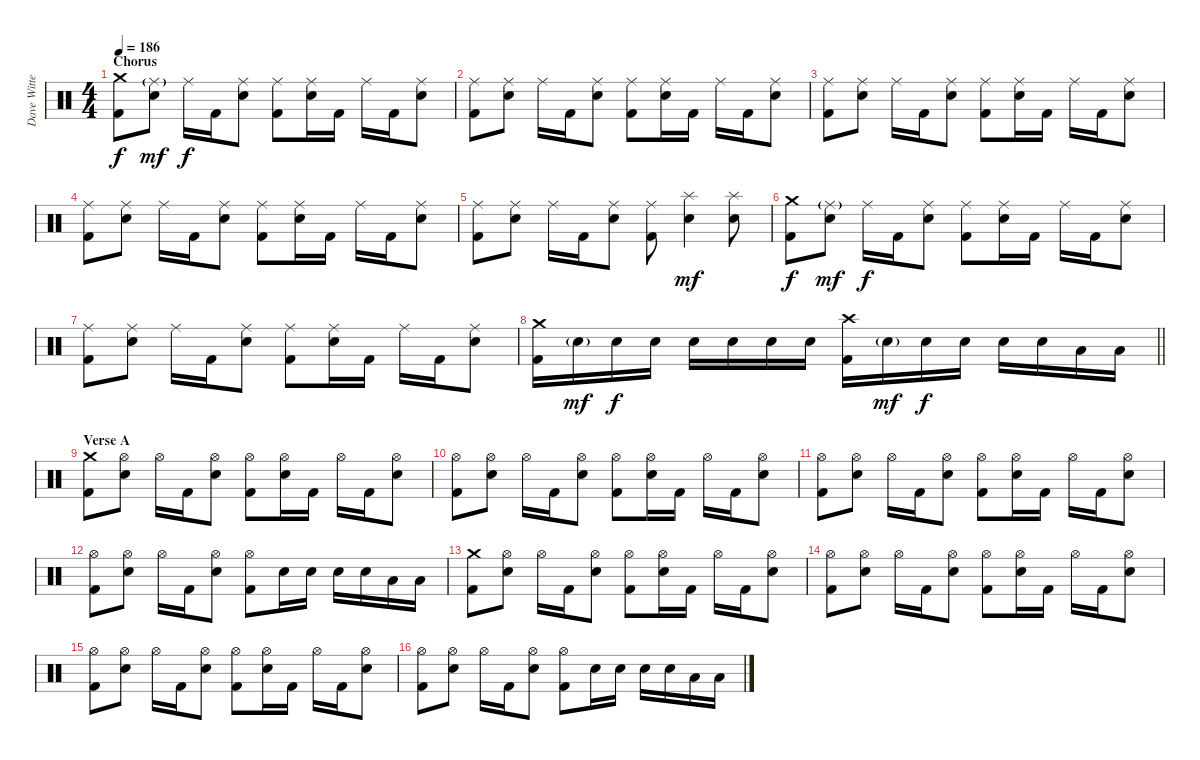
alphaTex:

\track ("Dave Witte" "Dave Witte") {instrument percussion}
\staff {score}
\articulation defaults
\ts (4 4)
\section ("" "Chorus")
\tempo 186
\clef neutral
\ks c
("Crash medium (hit)" "Kick (hit) 2").8{dy f} ("Ride (middle)"{g} "Electric Snare (hit)").8{dy mf} "Ride (middle)".16{dy f} "Kick (hit) 2".16 ("Ride (middle)" "Electric Snare (hit)").8 ("Ride (middle)" "Kick (hit) 2").8 ("Ride (middle)" "Electric Snare (hit)").16 "Kick (hit) 2".16 "Ride (middle)".16 "Kick (hit) 2".16 ("Ride (middle)" "Electric Snare (hit)").8 |
("Ride (middle)" "Kick (hit) 2").8 ("Ride (middle)" "Electric Snare (hit)").8 "Ride (middle)".16 "Kick (hit) 2".16 ("Ride (middle)" "Electric Snare (hit)").8 ("Ride (middle)" "Kick (hit) 2").8 ("Ride (middle)" "Electric Snare (hit)").16 "Kick (hit) 2".16 "Ride (middle)".16 "Kick (hit) 2".16 ("Ride (middle)" "Electric Snare (hit)").8 |
("Ride (middle)" "Kick (hit) 2").8 ("Ride (middle)" "Electric Snare (hit)").8 "Ride (middle)".16 "Kick (hit) 2".16 ("Ride (middle)" "Electric Snare (hit)").8 ("Ride (middle)" "Kick (hit) 2").8 ("Ride (middle)" "Electric Snare (hit)").16 "Kick (hit) 2".16 "Ride (middle)".16 "Kick (hit) 2".16 ("Ride (middle)" "Electric Snare (hit)").8 |
("Ride (middle)" "Kick (hit) 2").8 ("Ride (middle)" "Electric Snare (hit)").8 "Ride (middle)".16 "Kick (hit) 2".16 ("Ride (middle)" "Electric Snare (hit)").8 ("Ride (middle)" "Kick (hit) 2").8 ("Ride (middle)" "Electric Snare (hit)").16 "Kick (hit) 2".16 "Ride (middle)".16 "Kick (hit) 2".16 ("Ride (middle)" "Electric Snare (hit)").8 |
("Ride (middle)" "Kick (hit) 2").8 ("Ride (middle)" "Electric Snare (hit)").8 "Ride (middle)".16 "Kick (hit) 2".16 ("Ride (middle)" "Electric Snare (hit)").8 ("Ride (middle)" "Kick (hit) 2").8 ("Splash (hit)" "Electric Snare (hit)").4{dy mf} ("Splash (hit)" "Electric Snare (hit)").8 |
("Crash medium (hit)" "Kick (hit) 2").8{dy f} ("Ride (middle)"{g} "Electric Snare (hit)").8{dy mf} "Ride (middle)".16{dy f} "Kick (hit) 2".16 ("Ride (middle)" "Electric Snare (hit)").8 ("Ride (middle)" "Kick (hit) 2").8 ("Ride (middle)" "Electric Snare (hit)").16 "Kick (hit) 2".16 "Ride (middle)".16 "Kick (hit) 2".16 ("Ride (middle)" "Electric Snare (hit)").8 |
("Ride (middle)" "Kick (hit) 2").8 ("Ride (middle)" "Electric Snare (hit)").8 "Ride (middle)".16 "Kick (hit) 2".16 ("Ride (middle)" "Electric Snare (hit)").8 ("Ride (middle)" "Kick (hit) 2").8 ("Ride (middle)" "Electric Snare (hit)").16 "Kick (hit) 2".16 "Ride (middle)".16 "Kick (hit) 2".16 ("Ride (middle)" "Electric Snare (hit)").8 |
\barLineRight lightlight
("Crash medium (hit)" "Kick (hit) 2").16 "Electric Snare (hit)"{g}.16{dy mf} "Electric Snare (hit)".16{dy f} "Electric Snare (hit)".16 "Electric Snare (hit)".16 "Electric Snare (hit)".16 "Electric Snare (hit)".16 "Electric Snare (hit)".16 ("Crash high (hit)" "Kick (hit) 2").16 "Electric Snare (hit)"{g}.16{dy mf} "Electric Snare (hit)".16{dy f} "Electric Snare (hit)".16 "Electric Snare (hit)".16 "Electric Snare (hit)".16 "Low Tom (hit)".16 "Low Tom (hit)".16 |
\section ("" "Verse A")
("Crash medium (hit)" "Kick (hit) 2").8 ("Hi-Hat (open)" "Electric Snare (hit)").8 "Hi-Hat (open)".16 "Kick (hit) 2".16 ("Hi-Hat (open)" "Electric Snare (hit)").8 ("Hi-Hat (open)" "Kick (hit) 2").8 ("Hi-Hat (open)" "Electric Snare (hit)").16 "Kick (hit) 2".16 "Hi-Hat (open)".16 "Kick (hit) 2".16 ("Hi-Hat (open)" "Electric Snare (hit)").8 |
("Hi-Hat (open)" "Kick (hit) 2").8 ("Hi-Hat (open)" "Electric Snare (hit)").8 "Hi-Hat (open)".16 "Kick (hit) 2".16 ("Hi-Hat (open)" "Electric Snare (hit)").8 ("Hi-Hat (open)" "Kick (hit) 2").8 ("Hi-Hat (open)" "Electric Snare (hit)").16 "Kick (hit) 2".16 "Hi-Hat (open)".16 "Kick (hit) 2".16 ("Hi-Hat (open)" "Electric Snare (hit)").8 |
("Hi-Hat (open)" "Kick (hit) 2").8 ("Hi-Hat (open)" "Electric Snare (hit)").8 "Hi-Hat (open)".16 "Kick (hit) 2".16 ("Hi-Hat (open)" "Electric Snare (hit)").8 ("Hi-Hat (open)" "Kick (hit) 2").8 ("Hi-Hat (open)" "Electric Snare (hit)").16 "Kick (hit) 2".16 "Hi-Hat (open)".16 "Kick (hit) 2".16 ("Hi-Hat (open)" "Electric Snare (hit)").8 |
("Hi-Hat (open)" "Kick (hit) 2").8 ("Hi-Hat (open)" "Electric Snare (hit)").8 "Hi-Hat (open)".16 "Kick (hit) 2".16 ("Hi-Hat (open)" "Electric Snare (hit)").8 ("Hi-Hat (open)" "Kick (hit) 2").8 "Electric Snare (hit)".16 "Electric Snare (hit)".16 "Electric Snare (hit)".16 "Electric Snare (hit)".16 "Low Tom (hit)".16 "Low Tom (hit)".16 |
("Crash medium (hit)" "Kick (hit) 2").8 ("Hi-Hat (open)" "Electric Snare (hit)").8 "Hi-Hat (open)".16 "Kick (hit) 2".16 ("Hi-Hat (open)" "Electric Snare (hit)").8 ("Hi-Hat (open)" "Kick (hit) 2").8 ("Hi-Hat (open)" "Electric Snare (hit)").16 "Kick (hit) 2".16 "Hi-Hat (open)".16 "Kick (hit) 2".16 ("Hi-Hat (open)" "Electric Snare (hit)").8 |
("Hi-Hat (open)" "Kick (hit) 2").8 ("Hi-Hat (open)" "Electric Snare (hit)").8 "Hi-Hat (open)".16 "Kick (hit) 2".16 ("Hi-Hat (open)" "Electric Snare (hit)").8 ("Hi-Hat (open)" "Kick (hit) 2").8 ("Hi-Hat (open)" "Electric Snare (hit)").16 "Kick (hit) 2".16 "Hi-Hat (open)".16 "Kick (hit) 2".16 ("Hi-Hat (open)" "Electric Snare (hit)").8 |
("Hi-Hat (open)" "Kick (hit) 2").8 ("Hi-Hat (open)" "Electric Snare (hit)").8 "Hi-Hat (open)".16 "Kick (hit) 2".16 ("Hi-Hat (open)" "Electric Snare (hit)").8 ("Hi-Hat (open)" "Kick (hit) 2").8 ("Hi-Hat (open)" "Electric Snare (hit)").16 "Kick (hit) 2".16 "Hi-Hat (open)".16 "Kick (hit) 2".16 ("Hi-Hat (open)" "Electric Snare (hit)").8 |
("Hi-Hat (open)" "Kick (hit) 2").8 ("Hi-Hat (open)" "Electric Snare (hit)").8 "Hi-Hat (open)".16 "Kick (hit) 2".16 ("Hi-Hat (open)" "Electric Snare (hit)").8 ("Hi-Hat (open)" "Kick (hit) 2").8 "Electric Snare (hit)".16 "Electric Snare (hit)".16 "Electric Snare (hit)".16 "Electric Snare (hit)".16 "Low Tom (hit)".16 "Low Tom (hit)".16
